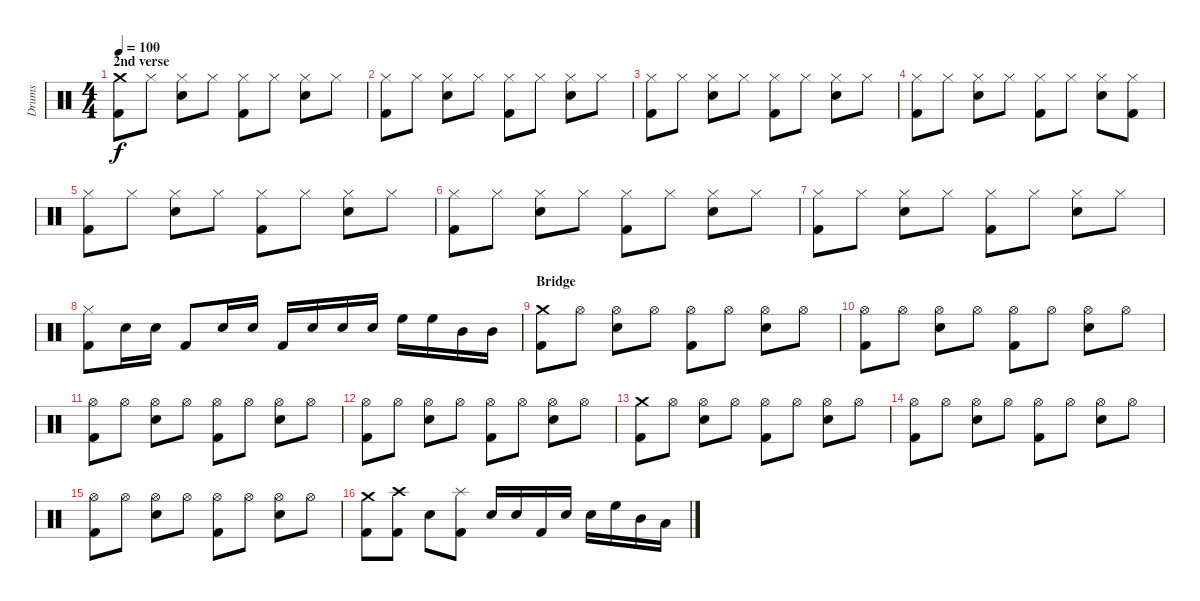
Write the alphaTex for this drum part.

\track ("Drums" "Drums") {instrument percussion}
\staff {score}
\articulation defaults
\ts (4 4)
\section ("" "2nd verse")
\tempo 100
\clef neutral
\ks c
("Crash medium (hit)" "Kick (hit) 2").8{dy f} "Hi-Hat (closed)".8 ("Hi-Hat (closed)" "Snare (hit) 2").8 "Hi-Hat (closed)".8 ("Hi-Hat (closed)" "Kick (hit) 2").8 "Hi-Hat (closed)".8 ("Hi-Hat (closed)" "Snare (hit) 2").8 "Hi-Hat (closed)".8 |
("Hi-Hat (closed)" "Kick (hit) 2").8 "Hi-Hat (closed)".8 ("Hi-Hat (closed)" "Snare (hit) 2").8 "Hi-Hat (closed)".8 ("Hi-Hat (closed)" "Kick (hit) 2").8 "Hi-Hat (closed)".8 ("Hi-Hat (closed)" "Snare (hit) 2").8 "Hi-Hat (closed)".8 |
("Hi-Hat (closed)" "Kick (hit) 2").8 "Hi-Hat (closed)".8 ("Hi-Hat (closed)" "Snare (hit) 2").8 "Hi-Hat (closed)".8 ("Hi-Hat (closed)" "Kick (hit) 2").8 "Hi-Hat (closed)".8 ("Hi-Hat (closed)" "Snare (hit) 2").8 "Hi-Hat (closed)".8 |
("Hi-Hat (closed)" "Kick (hit) 2").8 "Hi-Hat (closed)".8 ("Hi-Hat (closed)" "Snare (hit) 2").8 "Hi-Hat (closed)".8 ("Hi-Hat (closed)" "Kick (hit) 2").8 "Hi-Hat (closed)".8 ("Hi-Hat (closed)" "Snare (hit) 2").8 ("Hi-Hat (closed)" "Kick (hit) 2").8 |
("Hi-Hat (closed)" "Kick (hit) 2").8 "Hi-Hat (closed)".8 ("Hi-Hat (closed)" "Snare (hit) 2").8 "Hi-Hat (closed)".8 ("Hi-Hat (closed)" "Kick (hit) 2").8 "Hi-Hat (closed)".8 ("Hi-Hat (closed)" "Snare (hit) 2").8 "Hi-Hat (closed)".8 |
("Hi-Hat (closed)" "Kick (hit) 2").8 "Hi-Hat (closed)".8 ("Hi-Hat (closed)" "Snare (hit) 2").8 "Hi-Hat (closed)".8 ("Hi-Hat (closed)" "Kick (hit) 2").8 "Hi-Hat (closed)".8 ("Hi-Hat (closed)" "Snare (hit) 2").8 "Hi-Hat (closed)".8 |
("Hi-Hat (closed)" "Kick (hit) 2").8 "Hi-Hat (closed)".8 ("Hi-Hat (closed)" "Snare (hit) 2").8 "Hi-Hat (closed)".8 ("Hi-Hat (closed)" "Kick (hit) 2").8 "Hi-Hat (closed)".8 ("Hi-Hat (closed)" "Snare (hit) 2").8 "Hi-Hat (closed)".8 |
("Hi-Hat (closed)" "Kick (hit) 2").8 "Snare (hit) 2".16 "Snare (hit) 2".16 "Kick (hit) 2".8 "Snare (hit) 2".16 "Snare (hit) 2".16 "Kick (hit) 2".16 "Snare (hit) 2".16 "Snare (hit) 2".16 "Snare (hit) 2".16 "High Floor Tom (hit)".16 "High Floor Tom (hit)".16 "Mid Tom (hit)".16 "Mid Tom (hit)".16 |
\section ("" "Bridge")
("Crash medium (hit)" "Kick (hit) 2").8 "Hi-Hat (open)".8 ("Hi-Hat (open)" "Snare (hit) 2").8 "Hi-Hat (open)".8 ("Hi-Hat (open)" "Kick (hit) 2").8 "Hi-Hat (open)".8 ("Hi-Hat (open)" "Snare (hit) 2").8 "Hi-Hat (open)".8 |
("Hi-Hat (open)" "Kick (hit) 2").8 "Hi-Hat (open)".8 ("Hi-Hat (open)" "Snare (hit) 2").8 "Hi-Hat (open)".8 ("Hi-Hat (open)" "Kick (hit) 2").8 "Hi-Hat (open)".8 ("Hi-Hat (open)" "Snare (hit) 2").8 "Hi-Hat (open)".8 |
("Hi-Hat (open)" "Kick (hit) 2").8 "Hi-Hat (open)".8 ("Hi-Hat (open)" "Snare (hit) 2").8 "Hi-Hat (open)".8 ("Hi-Hat (open)" "Kick (hit) 2").8 "Hi-Hat (open)".8 ("Hi-Hat (open)" "Snare (hit) 2").8 "Hi-Hat (open)".8 |
("Hi-Hat (open)" "Kick (hit) 2").8 "Hi-Hat (open)".8 ("Hi-Hat (open)" "Snare (hit) 2").8 "Hi-Hat (open)".8 ("Hi-Hat (open)" "Kick (hit) 2").8 "Hi-Hat (open)".8 ("Hi-Hat (open)" "Snare (hit) 2").8 "Hi-Hat (open)".8 |
("Crash medium (hit)" "Kick (hit) 2").8 "Hi-Hat (open)".8 ("Hi-Hat (open)" "Snare (hit) 2").8 "Hi-Hat (open)".8 ("Hi-Hat (open)" "Kick (hit) 2").8 "Hi-Hat (open)".8 ("Hi-Hat (open)" "Snare (hit) 2").8 "Hi-Hat (open)".8 |
("Hi-Hat (open)" "Kick (hit) 2").8 "Hi-Hat (open)".8 ("Hi-Hat (open)" "Snare (hit) 2").8 "Hi-Hat (open)".8 ("Hi-Hat (open)" "Kick (hit) 2").8 "Hi-Hat (open)".8 ("Hi-Hat (open)" "Snare (hit) 2").8 "Hi-Hat (open)".8 |
("Hi-Hat (open)" "Kick (hit) 2").8 "Hi-Hat (open)".8 ("Hi-Hat (open)" "Snare (hit) 2").8 "Hi-Hat (open)".8 ("Hi-Hat (open)" "Kick (hit) 2").8 "Hi-Hat (open)".8 ("Hi-Hat (open)" "Snare (hit) 2").8 "Hi-Hat (open)".8 |
("Crash medium (hit)" "Kick (hit) 2").8 ("Crash high (hit)" "Kick (hit) 2").8 "Snare (hit) 2".8 ("Splash (hit)" "Kick (hit) 2").8 "Snare (hit) 2".16 "Snare (hit) 2".16 "Kick (hit) 2".16 "Snare (hit) 2".16 "Snare (hit) 2".16 "High Floor Tom (hit)".16 "Mid Tom (hit)".16 "Low Tom (hit)".16
